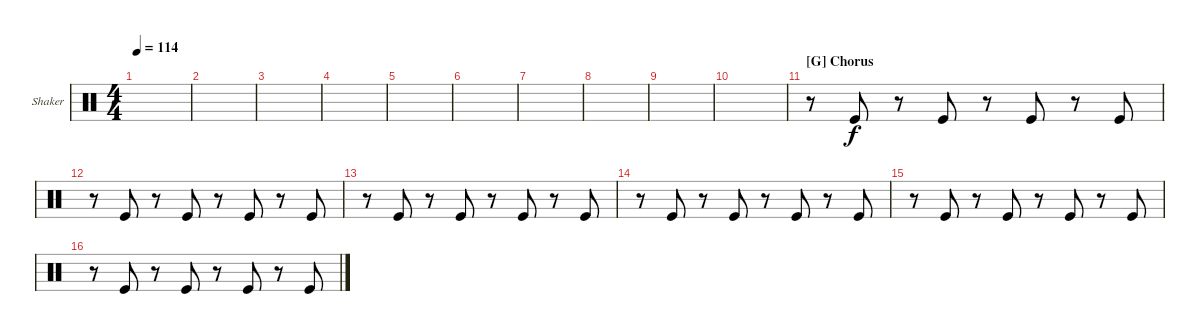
\defaultSystemsLayout 4
\bracketExtendMode groupsimilarinstruments
\firstSystemTrackNameOrientation horizontal
\otherSystemsTrackNameOrientation horizontal
\track ("Shaker" "Shaker") {instrument percussion}
\staff {score}
\articulation defaults
\ts (4 4)
\tempo 114
\clef neutral
\ks c
|
|
|
|
|
|
|
|
|
|
\section ("G" "Chorus")
r.8 "Kick (hit)".8 r.8 "Kick (hit)".8 r.8 "Kick (hit)".8 r.8 "Kick (hit)".8 |
r.8 "Kick (hit)".8 r.8 "Kick (hit)".8 r.8 "Kick (hit)".8 r.8 "Kick (hit)".8 |
r.8 "Kick (hit)".8 r.8 "Kick (hit)".8 r.8 "Kick (hit)".8 r.8 "Kick (hit)".8 |
r.8 "Kick (hit)".8 r.8 "Kick (hit)".8 r.8 "Kick (hit)".8 r.8 "Kick (hit)".8 |
r.8 "Kick (hit)".8 r.8 "Kick (hit)".8 r.8 "Kick (hit)".8 r.8 "Kick (hit)".8 |
r.8 "Kick (hit)".8 r.8 "Kick (hit)".8 r.8 "Kick (hit)".8 r.8 "Kick (hit)".8
